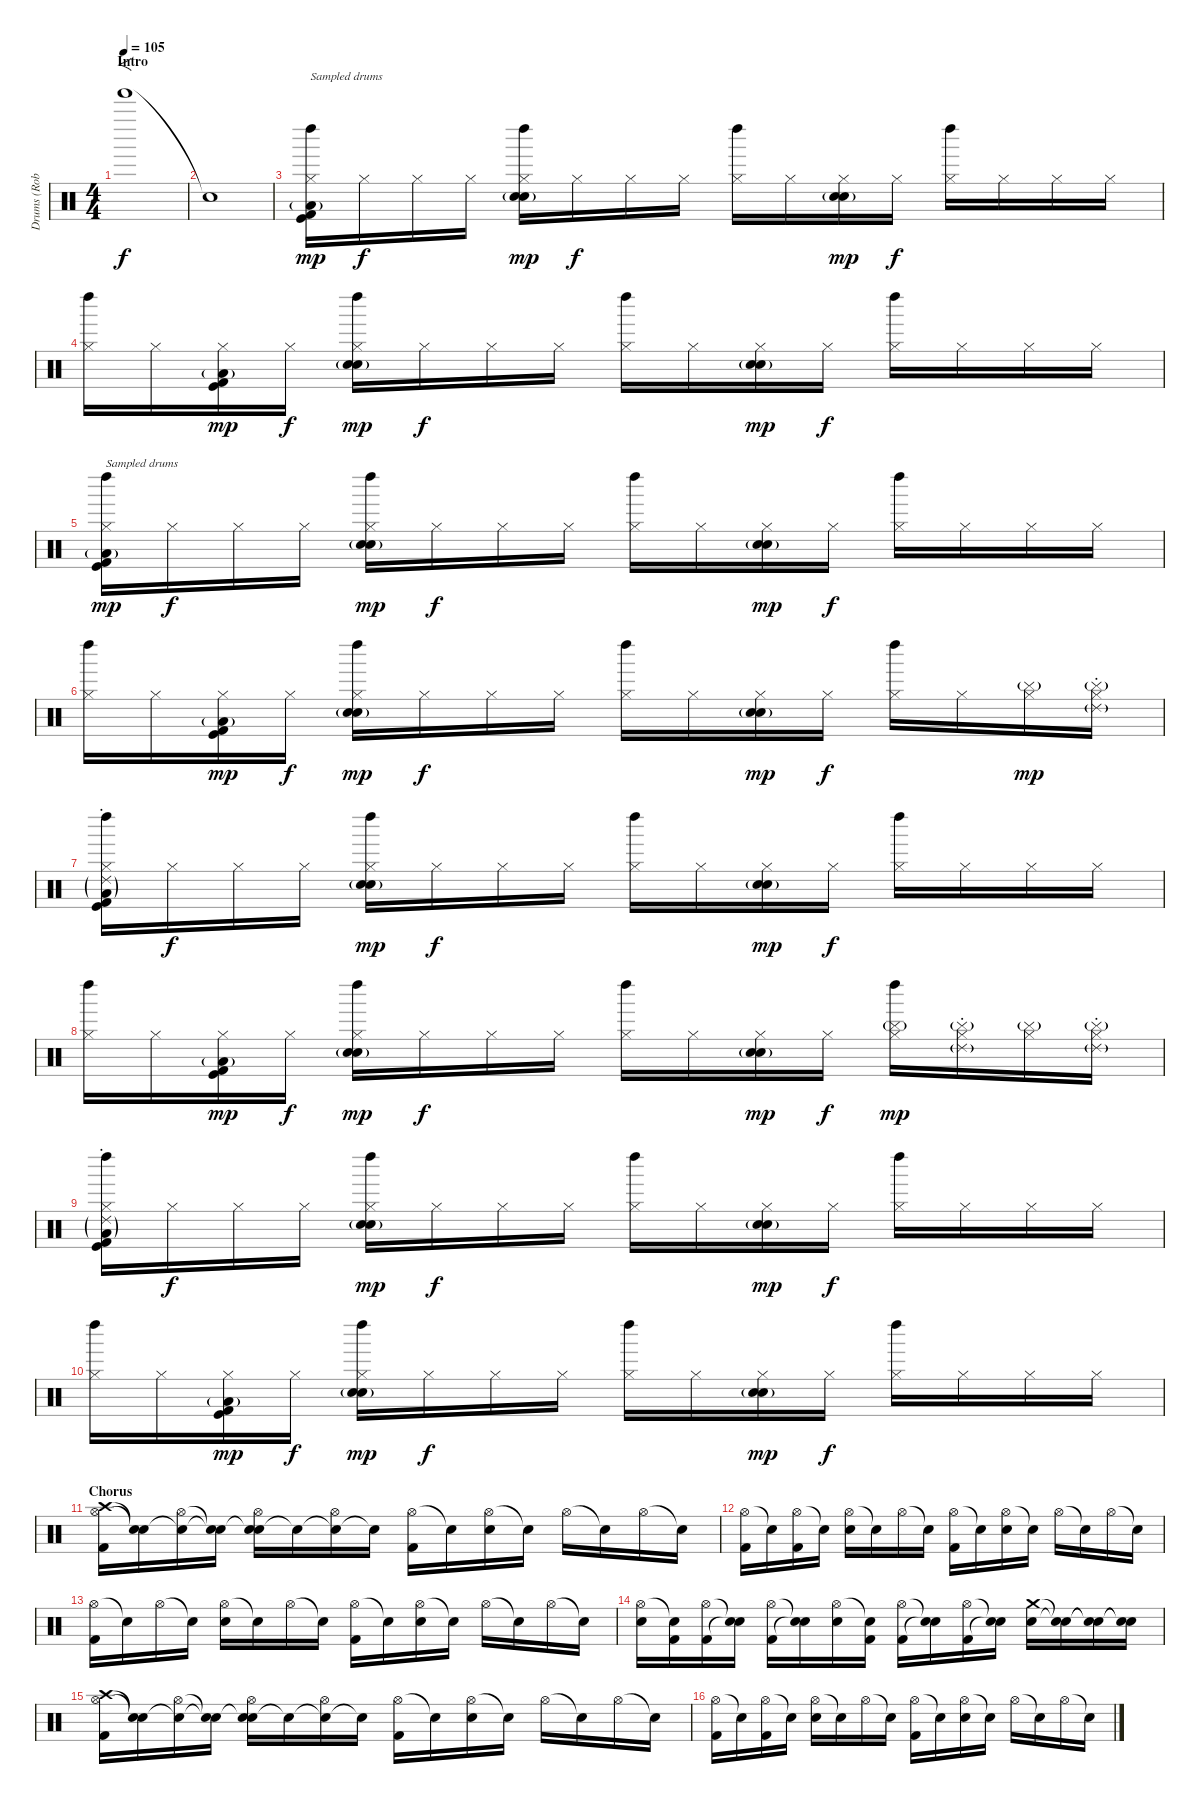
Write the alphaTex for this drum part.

\track ("Drums (Rob Bourdon)" "Drums (Rob") {instrument percussion}
\staff {score}
\articulation defaults
\ts (4 4)
\section ("" "Intro")
\tempo 105
\clef neutral
\ks c "Tinkle Bell (hit)".1{f dy f volume 5}
|
"Snare (hit)"{t}.1 |
("Left Maraca (hit)" "Hi-Hat (closed)" "Kick (hit)" "Kick (hit) 2" "Low Floor Tom (hit)"{g}).16{txt "Sampled drums" dy mp volume 16} "Hi-Hat (closed)".16{dy f} "Hi-Hat (closed)".16 "Hi-Hat (closed)".16 ("Left Maraca (hit)" "Hi-Hat (closed)" "Electric Snare (hit)"{g} "Hand Clap (hit)").16{dy mp} "Hi-Hat (closed)".16{dy f} "Hi-Hat (closed)".16 "Hi-Hat (closed)".16 ("Left Maraca (hit)" "Hi-Hat (closed)").16 "Hi-Hat (closed)".16 ("Hi-Hat (closed)" "Electric Snare (hit)"{g} "Hand Clap (hit)").16{dy mp} "Hi-Hat (closed)".16{dy f} ("Left Maraca (hit)" "Hi-Hat (closed)").16 "Hi-Hat (closed)".16 "Hi-Hat (closed)".16 "Hi-Hat (closed)".16 |
("Left Maraca (hit)" "Hi-Hat (closed)").16{volume 16} "Hi-Hat (closed)".16 ("Hi-Hat (closed)" "Kick (hit)" "Kick (hit) 2" "Low Floor Tom (hit)"{g}).16{dy mp} "Hi-Hat (closed)".16{dy f} ("Left Maraca (hit)" "Hi-Hat (closed)" "Electric Snare (hit)"{g} "Hand Clap (hit)").16{dy mp} "Hi-Hat (closed)".16{dy f} "Hi-Hat (closed)".16 "Hi-Hat (closed)".16 ("Left Maraca (hit)" "Hi-Hat (closed)").16 "Hi-Hat (closed)".16 ("Hi-Hat (closed)" "Electric Snare (hit)"{g} "Hand Clap (hit)").16{dy mp} "Hi-Hat (closed)".16{dy f} ("Left Maraca (hit)" "Hi-Hat (closed)").16 "Hi-Hat (closed)".16 "Hi-Hat (closed)".16 "Hi-Hat (closed)".16 |
("Left Maraca (hit)" "Hi-Hat (closed)" "Kick (hit)" "Kick (hit) 2" "Low Floor Tom (hit)"{g}).16{txt "Sampled drums" dy mp volume 16} "Hi-Hat (closed)".16{dy f} "Hi-Hat (closed)".16 "Hi-Hat (closed)".16 ("Left Maraca (hit)" "Hi-Hat (closed)" "Electric Snare (hit)"{g} "Hand Clap (hit)").16{dy mp} "Hi-Hat (closed)".16{dy f} "Hi-Hat (closed)".16 "Hi-Hat (closed)".16 ("Left Maraca (hit)" "Hi-Hat (closed)").16 "Hi-Hat (closed)".16 ("Hi-Hat (closed)" "Electric Snare (hit)"{g} "Hand Clap (hit)").16{dy mp} "Hi-Hat (closed)".16{dy f} ("Left Maraca (hit)" "Hi-Hat (closed)").16 "Hi-Hat (closed)".16 "Hi-Hat (closed)".16 "Hi-Hat (closed)".16 |
("Left Maraca (hit)" "Hi-Hat (closed)").16{volume 16} "Hi-Hat (closed)".16 ("Hi-Hat (closed)" "Kick (hit)" "Kick (hit) 2" "Low Floor Tom (hit)"{g}).16{dy mp} "Hi-Hat (closed)".16{dy f} ("Left Maraca (hit)" "Hi-Hat (closed)" "Electric Snare (hit)"{g} "Hand Clap (hit)").16{dy mp} "Hi-Hat (closed)".16{dy f} "Hi-Hat (closed)".16 "Hi-Hat (closed)".16 ("Left Maraca (hit)" "Hi-Hat (closed)").16 "Hi-Hat (closed)".16 ("Hi-Hat (closed)" "Electric Snare (hit)"{g} "Hand Clap (hit)").16{dy mp} "Hi-Hat (closed)".16{dy f} ("Left Maraca (hit)" "Hi-Hat (closed)").16 "Hi-Hat (closed)".16 ("Cymbal (hit)"{g} "Hi-Hat (closed)").16{dy mp} ("Cymbal (hit)"{g} "Ride (choke) 2"{g} "Hi-Hat (closed)").16 |
("Left Maraca (hit)" "Ride (choke) 2"{g} "Hi-Hat (closed)" "Kick (hit)" "Kick (hit) 2" "Low Floor Tom (hit)"{g}).16{volume 16} "Hi-Hat (closed)".16{dy f} "Hi-Hat (closed)".16 "Hi-Hat (closed)".16 ("Left Maraca (hit)" "Hi-Hat (closed)" "Electric Snare (hit)"{g} "Hand Clap (hit)").16{dy mp} "Hi-Hat (closed)".16{dy f} "Hi-Hat (closed)".16 "Hi-Hat (closed)".16 ("Left Maraca (hit)" "Hi-Hat (closed)").16 "Hi-Hat (closed)".16 ("Hi-Hat (closed)" "Electric Snare (hit)"{g} "Hand Clap (hit)").16{dy mp} "Hi-Hat (closed)".16{dy f} ("Left Maraca (hit)" "Hi-Hat (closed)").16 "Hi-Hat (closed)".16 "Hi-Hat (closed)".16 "Hi-Hat (closed)".16 |
("Left Maraca (hit)" "Hi-Hat (closed)").16{volume 16} "Hi-Hat (closed)".16 ("Hi-Hat (closed)" "Kick (hit)" "Kick (hit) 2" "Low Floor Tom (hit)"{g}).16{dy mp} "Hi-Hat (closed)".16{dy f} ("Left Maraca (hit)" "Hi-Hat (closed)" "Electric Snare (hit)"{g} "Hand Clap (hit)").16{dy mp} "Hi-Hat (closed)".16{dy f} "Hi-Hat (closed)".16 "Hi-Hat (closed)".16 ("Left Maraca (hit)" "Hi-Hat (closed)").16 "Hi-Hat (closed)".16 ("Hi-Hat (closed)" "Electric Snare (hit)"{g} "Hand Clap (hit)").16{dy mp} "Hi-Hat (closed)".16{dy f} ("Left Maraca (hit)" "Cymbal (hit)"{g} "Hi-Hat (closed)").16{dy mp} ("Cymbal (hit)"{g} "Ride (choke) 2"{g} "Hi-Hat (closed)").16 ("Cymbal (hit)"{g} "Hi-Hat (closed)").16 ("Cymbal (hit)"{g} "Ride (choke) 2"{g} "Hi-Hat (closed)").16 |
("Left Maraca (hit)" "Ride (choke) 2"{g} "Hi-Hat (closed)" "Kick (hit)" "Kick (hit) 2" "Low Floor Tom (hit)"{g}).16{volume 16} "Hi-Hat (closed)".16{dy f} "Hi-Hat (closed)".16 "Hi-Hat (closed)".16 ("Left Maraca (hit)" "Hi-Hat (closed)" "Electric Snare (hit)"{g} "Hand Clap (hit)").16{dy mp} "Hi-Hat (closed)".16{dy f} "Hi-Hat (closed)".16 "Hi-Hat (closed)".16 ("Left Maraca (hit)" "Hi-Hat (closed)").16 "Hi-Hat (closed)".16 ("Hi-Hat (closed)" "Electric Snare (hit)"{g} "Hand Clap (hit)").16{dy mp} "Hi-Hat (closed)".16{dy f} ("Left Maraca (hit)" "Hi-Hat (closed)").16 "Hi-Hat (closed)".16 "Hi-Hat (closed)".16 "Hi-Hat (closed)".16 |
("Left Maraca (hit)" "Hi-Hat (closed)").16{volume 16} "Hi-Hat (closed)".16 ("Hi-Hat (closed)" "Kick (hit)" "Kick (hit) 2" "Low Floor Tom (hit)"{g}).16{dy mp} "Hi-Hat (closed)".16{dy f} ("Left Maraca (hit)" "Hi-Hat (closed)" "Electric Snare (hit)"{g} "Hand Clap (hit)").16{dy mp} "Hi-Hat (closed)".16{dy f} "Hi-Hat (closed)".16 "Hi-Hat (closed)".16 ("Left Maraca (hit)" "Hi-Hat (closed)").16 "Hi-Hat (closed)".16 ("Hi-Hat (closed)" "Electric Snare (hit)"{g} "Hand Clap (hit)").16{dy mp} "Hi-Hat (closed)".16{dy f} ("Left Maraca (hit)" "Hi-Hat (closed)").16 "Hi-Hat (closed)".16 "Hi-Hat (closed)".16 "Hi-Hat (closed)".16 |
\section ("" "Chorus")
("Crash high (hit)" "Hi-Hat (open)" "Kick (hit) 2").16{volume 13} ("Snare (hit)"{t} "Snare (hit)"{t}).16 ("Snare (hit)"{t} "Hi-Hat (open)").16 ("Snare (hit)"{t} "Snare (hit)"{t}).16 ("Snare (hit)"{t} "Hi-Hat (open)" "Electric Snare (hit)").16 "Snare (hit)"{t}.16 ("Snare (hit)"{t} "Hi-Hat (open)").16 "Snare (hit)"{t}.16 ("Hi-Hat (open)" "Kick (hit) 2").16 "Snare (hit)"{t}.16 ("Hi-Hat (open)" "Electric Snare (hit)").16 "Snare (hit)"{t}.16 "Hi-Hat (open)".16 "Snare (hit)"{t}.16 "Hi-Hat (open)".16 "Snare (hit)"{t}.16 |
("Hi-Hat (open)" "Kick (hit) 2").16 "Snare (hit)"{t}.16 ("Hi-Hat (open)" "Kick (hit) 2").16 "Snare (hit)"{t}.16 ("Hi-Hat (open)" "Electric Snare (hit)").16 "Snare (hit)"{t}.16 "Hi-Hat (open)".16 "Snare (hit)"{t}.16 ("Hi-Hat (open)" "Kick (hit) 2").16 "Snare (hit)"{t}.16 ("Hi-Hat (open)" "Electric Snare (hit)").16 "Snare (hit)"{t}.16 "Hi-Hat (open)".16 "Snare (hit)"{t}.16 "Hi-Hat (open)".16 "Snare (hit)"{t}.16 |
("Hi-Hat (open)" "Kick (hit) 2").16 "Snare (hit)"{t}.16 "Hi-Hat (open)".16 "Snare (hit)"{t}.16 ("Hi-Hat (open)" "Electric Snare (hit)").16 "Snare (hit)"{t}.16 "Hi-Hat (open)".16 "Snare (hit)"{t}.16 ("Hi-Hat (open)" "Kick (hit) 2").16 "Snare (hit)"{t}.16 ("Hi-Hat (open)" "Electric Snare (hit)").16 "Snare (hit)"{t}.16 "Hi-Hat (open)".16 "Snare (hit)"{t}.16 "Hi-Hat (open)".16 "Snare (hit)"{t}.16 |
("Hi-Hat (open)" "Electric Snare (hit)").16 ("Snare (hit)"{t} "Kick (hit) 2").16 ("Hi-Hat (open)" "Kick (hit) 2").16 ("Snare (hit)"{t} "Snare (hit)"{t}).16 ("Hi-Hat (open)" "Kick (hit) 2").16 ("Snare (hit)"{t} "Snare (hit)"{t}).16 ("Hi-Hat (open)" "Electric Snare (hit)").16 ("Snare (hit)"{t} "Kick (hit) 2").16 ("Hi-Hat (open)" "Kick (hit) 2").16 ("Snare (hit)"{t} "Snare (hit)"{t}).16 ("Hi-Hat (open)" "Kick (hit) 2").16 ("Snare (hit)"{t} "Snare (hit)"{t}).16 ("Crash medium (hit)" "Electric Snare (hit)").16 ("Snare (hit)"{t} "Snare (hit)"{t}).16 ("Snare (hit)"{t} "Snare (hit)"{t}).16 ("Snare (hit)"{t} "Snare (hit)"{t}).16 |
("Crash high (hit)" "Hi-Hat (open)" "Kick (hit) 2").16 ("Snare (hit)"{t} "Snare (hit)"{t}).16 ("Snare (hit)"{t} "Hi-Hat (open)").16 ("Snare (hit)"{t} "Snare (hit)"{t}).16 ("Snare (hit)"{t} "Hi-Hat (open)" "Electric Snare (hit)").16 "Snare (hit)"{t}.16 ("Snare (hit)"{t} "Hi-Hat (open)").16 "Snare (hit)"{t}.16 ("Hi-Hat (open)" "Kick (hit) 2").16 "Snare (hit)"{t}.16 ("Hi-Hat (open)" "Electric Snare (hit)").16 "Snare (hit)"{t}.16 "Hi-Hat (open)".16 "Snare (hit)"{t}.16 "Hi-Hat (open)".16 "Snare (hit)"{t}.16 |
("Hi-Hat (open)" "Kick (hit) 2").16 "Snare (hit)"{t}.16 ("Hi-Hat (open)" "Kick (hit) 2").16 "Snare (hit)"{t}.16 ("Hi-Hat (open)" "Electric Snare (hit)").16 "Snare (hit)"{t}.16 "Hi-Hat (open)".16 "Snare (hit)"{t}.16 ("Hi-Hat (open)" "Kick (hit) 2").16 "Snare (hit)"{t}.16 ("Hi-Hat (open)" "Electric Snare (hit)").16 "Snare (hit)"{t}.16 "Hi-Hat (open)".16 "Snare (hit)"{t}.16 "Hi-Hat (open)".16 "Snare (hit)"{t}.16
